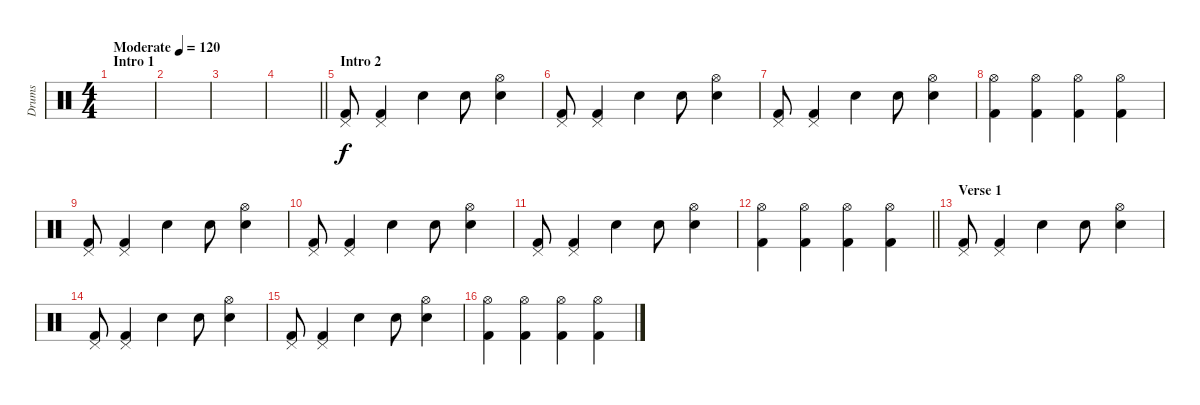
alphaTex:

\track ("Drums" "Drums") {instrument percussion}
\staff {score}
\articulation defaults
\ts (4 4)
\section ("" "Intro 1")
\tempo (120 "Moderate")
\clef neutral
\ks c
|
|
|
\barLineRight lightlight
|
\section ("" "Intro 2")
("Pedal Hi-Hat (hit)" "Kick (hit) 2").8 ("Pedal Hi-Hat (hit)" "Kick (hit) 2").4 "Electric Snare (hit)".4 "Electric Snare (hit)".8 ("Hi-Hat (open)" "Snare (hit) 2").4 |
("Pedal Hi-Hat (hit)" "Kick (hit) 2").8 ("Pedal Hi-Hat (hit)" "Kick (hit) 2").4 "Electric Snare (hit)".4 "Electric Snare (hit)".8 ("Hi-Hat (open)" "Snare (hit) 2").4 |
("Pedal Hi-Hat (hit)" "Kick (hit) 2").8 ("Pedal Hi-Hat (hit)" "Kick (hit) 2").4 "Electric Snare (hit)".4 "Electric Snare (hit)".8 ("Hi-Hat (open)" "Snare (hit) 2").4 |
("Hi-Hat (open)" "Kick (hit) 2").4 ("Hi-Hat (open)" "Kick (hit) 2").4 ("Hi-Hat (open)" "Kick (hit) 2").4 ("Hi-Hat (open)" "Kick (hit) 2").4 |
("Pedal Hi-Hat (hit)" "Kick (hit) 2").8 ("Pedal Hi-Hat (hit)" "Kick (hit) 2").4 "Electric Snare (hit)".4 "Electric Snare (hit)".8 ("Hi-Hat (open)" "Snare (hit) 2").4 |
("Pedal Hi-Hat (hit)" "Kick (hit) 2").8 ("Pedal Hi-Hat (hit)" "Kick (hit) 2").4 "Electric Snare (hit)".4 "Electric Snare (hit)".8 ("Hi-Hat (open)" "Snare (hit) 2").4 |
("Pedal Hi-Hat (hit)" "Kick (hit) 2").8 ("Pedal Hi-Hat (hit)" "Kick (hit) 2").4 "Electric Snare (hit)".4 "Electric Snare (hit)".8 ("Hi-Hat (open)" "Snare (hit) 2").4 |
\barLineRight lightlight
("Hi-Hat (open)" "Kick (hit) 2").4 ("Hi-Hat (open)" "Kick (hit) 2").4 ("Hi-Hat (open)" "Kick (hit) 2").4 ("Hi-Hat (open)" "Kick (hit) 2").4 |
\section ("" "Verse 1")
("Pedal Hi-Hat (hit)" "Kick (hit) 2").8 ("Pedal Hi-Hat (hit)" "Kick (hit) 2").4 "Electric Snare (hit)".4 "Electric Snare (hit)".8 ("Hi-Hat (open)" "Snare (hit) 2").4 |
("Pedal Hi-Hat (hit)" "Kick (hit) 2").8 ("Pedal Hi-Hat (hit)" "Kick (hit) 2").4 "Electric Snare (hit)".4 "Electric Snare (hit)".8 ("Hi-Hat (open)" "Snare (hit) 2").4 |
("Pedal Hi-Hat (hit)" "Kick (hit) 2").8 ("Pedal Hi-Hat (hit)" "Kick (hit) 2").4 "Electric Snare (hit)".4 "Electric Snare (hit)".8 ("Hi-Hat (open)" "Snare (hit) 2").4 |
("Hi-Hat (open)" "Kick (hit) 2").4 ("Hi-Hat (open)" "Kick (hit) 2").4 ("Hi-Hat (open)" "Kick (hit) 2").4 ("Hi-Hat (open)" "Kick (hit) 2").4
